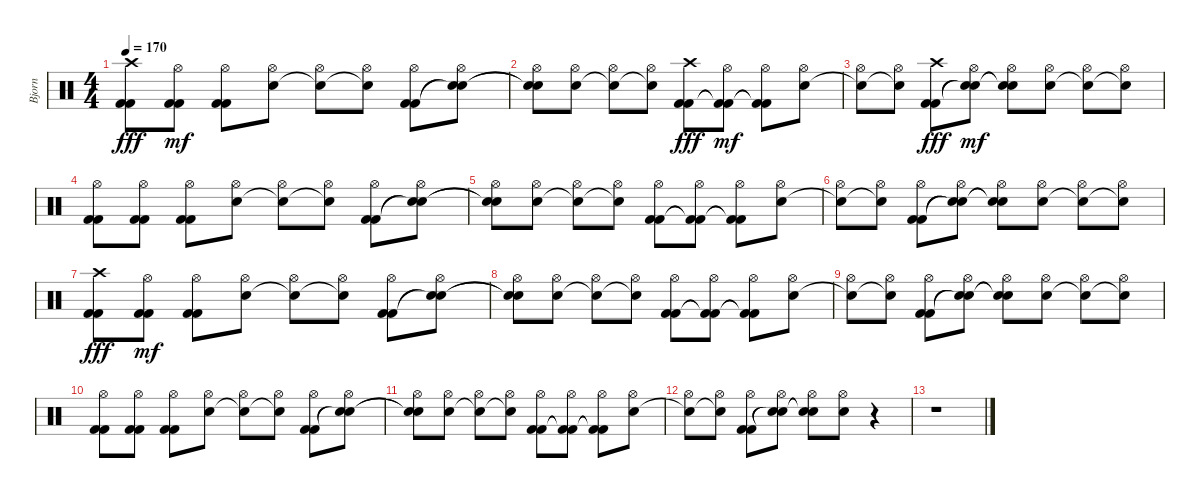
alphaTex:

\track ("Bjorn" "Bjorn") {instrument percussion}
\staff {score}
\articulation defaults
\ts (4 4)
\tempo 170
\clef neutral
\ks c
("Kick (hit) 2" "Kick (hit) 2" "Crash high (hit)").8{dy fff} ("Kick (hit) 2" "Kick (hit) 2" "Hi-Hat (open)").8{dy mf} ("Kick (hit) 2" "Kick (hit) 2" "Hi-Hat (open)").8 ("Snare (hit) 2" "Hi-Hat (open)").8 ("Snare (hit)"{t} "Hi-Hat (open)").8 ("Snare (hit)"{t} "Hi-Hat (open)").8 ("Kick (hit) 2" "Kick (hit) 2" "Hi-Hat (open)").8 ("Snare (hit)"{t} "Snare (hit)"{t} "Hi-Hat (open)").8 |
("Snare (hit)"{t} "Snare (hit)"{t} "Hi-Hat (open)").8 ("Snare (hit) 2" "Hi-Hat (open)").8 ("Snare (hit)"{t} "Hi-Hat (open)").8 ("Snare (hit)"{t} "Hi-Hat (open)").8 ("Kick (hit) 2" "Kick (hit) 2" "Crash high (hit)").8{dy fff} ("Kick (hit) 2"{t} "Kick (hit) 2"{t} "Hi-Hat (open)").8{dy mf} ("Kick (hit) 2"{t} "Kick (hit) 2"{t} "Hi-Hat (open)").8 ("Snare (hit) 2" "Hi-Hat (open)").8 |
("Snare (hit)"{t} "Hi-Hat (open)").8 ("Snare (hit)"{t} "Hi-Hat (open)").8 ("Kick (hit) 2" "Kick (hit) 2" "Crash high (hit)").8{dy fff} ("Snare (hit)"{t} "Snare (hit)"{t} "Hi-Hat (open)").8{dy mf} ("Snare (hit)"{t} "Snare (hit)"{t} "Hi-Hat (open)").8 ("Snare (hit) 2" "Hi-Hat (open)").8 ("Snare (hit)"{t} "Hi-Hat (open)").8 ("Snare (hit)"{t} "Hi-Hat (open)").8 |
("Kick (hit) 2" "Kick (hit) 2" "Hi-Hat (open)").8 ("Kick (hit) 2" "Kick (hit) 2" "Hi-Hat (open)").8 ("Kick (hit) 2" "Kick (hit) 2" "Hi-Hat (open)").8 ("Snare (hit) 2" "Hi-Hat (open)").8 ("Snare (hit)"{t} "Hi-Hat (open)").8 ("Snare (hit)"{t} "Hi-Hat (open)").8 ("Kick (hit) 2" "Kick (hit) 2" "Hi-Hat (open)").8 ("Snare (hit)"{t} "Snare (hit)"{t} "Hi-Hat (open)").8 |
("Snare (hit)"{t} "Snare (hit)"{t} "Hi-Hat (open)").8 ("Snare (hit) 2" "Hi-Hat (open)").8 ("Snare (hit)"{t} "Hi-Hat (open)").8 ("Snare (hit)"{t} "Hi-Hat (open)").8 ("Kick (hit) 2" "Kick (hit) 2" "Hi-Hat (open)").8 ("Kick (hit) 2"{t} "Kick (hit) 2"{t} "Hi-Hat (open)").8 ("Kick (hit) 2"{t} "Kick (hit) 2"{t} "Hi-Hat (open)").8 ("Snare (hit) 2" "Hi-Hat (open)").8 |
("Snare (hit)"{t} "Hi-Hat (open)").8 ("Snare (hit)"{t} "Hi-Hat (open)").8 ("Kick (hit) 2" "Kick (hit) 2" "Hi-Hat (open)").8 ("Snare (hit)"{t} "Snare (hit)"{t} "Hi-Hat (open)").8 ("Snare (hit)"{t} "Snare (hit)"{t} "Hi-Hat (open)").8 ("Snare (hit) 2" "Hi-Hat (open)").8 ("Snare (hit)"{t} "Hi-Hat (open)").8 ("Snare (hit)"{t} "Hi-Hat (open)").8 |
("Kick (hit) 2" "Kick (hit) 2" "Crash high (hit)").8{dy fff} ("Kick (hit) 2" "Kick (hit) 2" "Hi-Hat (open)").8{dy mf} ("Kick (hit) 2" "Kick (hit) 2" "Hi-Hat (open)").8 ("Snare (hit) 2" "Hi-Hat (open)").8 ("Snare (hit)"{t} "Hi-Hat (open)").8 ("Snare (hit)"{t} "Hi-Hat (open)").8 ("Kick (hit) 2" "Kick (hit) 2" "Hi-Hat (open)").8 ("Snare (hit)"{t} "Snare (hit)"{t} "Hi-Hat (open)").8 |
("Snare (hit)"{t} "Snare (hit)"{t} "Hi-Hat (open)").8 ("Snare (hit) 2" "Hi-Hat (open)").8 ("Snare (hit)"{t} "Hi-Hat (open)").8 ("Snare (hit)"{t} "Hi-Hat (open)").8 ("Kick (hit) 2" "Kick (hit) 2" "Hi-Hat (open)").8 ("Kick (hit) 2"{t} "Kick (hit) 2"{t} "Hi-Hat (open)").8 ("Kick (hit) 2"{t} "Kick (hit) 2"{t} "Hi-Hat (open)").8 ("Snare (hit) 2" "Hi-Hat (open)").8 |
("Snare (hit)"{t} "Hi-Hat (open)").8 ("Snare (hit)"{t} "Hi-Hat (open)").8 ("Kick (hit) 2" "Kick (hit) 2" "Hi-Hat (open)").8 ("Snare (hit)"{t} "Snare (hit)"{t} "Hi-Hat (open)").8 ("Snare (hit)"{t} "Snare (hit)"{t} "Hi-Hat (open)").8 ("Snare (hit) 2" "Hi-Hat (open)").8 ("Snare (hit)"{t} "Hi-Hat (open)").8 ("Snare (hit)"{t} "Hi-Hat (open)").8 |
("Kick (hit) 2" "Kick (hit) 2" "Hi-Hat (open)").8 ("Kick (hit) 2" "Kick (hit) 2" "Hi-Hat (open)").8 ("Kick (hit) 2" "Kick (hit) 2" "Hi-Hat (open)").8 ("Snare (hit) 2" "Hi-Hat (open)").8 ("Snare (hit)"{t} "Hi-Hat (open)").8 ("Snare (hit)"{t} "Hi-Hat (open)").8 ("Kick (hit) 2" "Kick (hit) 2" "Hi-Hat (open)").8 ("Snare (hit)"{t} "Snare (hit)"{t} "Hi-Hat (open)").8 |
("Snare (hit)"{t} "Snare (hit)"{t} "Hi-Hat (open)").8 ("Snare (hit) 2" "Hi-Hat (open)").8 ("Snare (hit)"{t} "Hi-Hat (open)").8 ("Snare (hit)"{t} "Hi-Hat (open)").8 ("Kick (hit) 2" "Kick (hit) 2" "Hi-Hat (open)").8 ("Kick (hit) 2"{t} "Kick (hit) 2"{t} "Hi-Hat (open)").8 ("Kick (hit) 2"{t} "Kick (hit) 2"{t} "Hi-Hat (open)").8 ("Snare (hit) 2" "Hi-Hat (open)").8 |
("Snare (hit)"{t} "Hi-Hat (open)").8 ("Snare (hit)"{t} "Hi-Hat (open)").8 ("Kick (hit) 2" "Kick (hit) 2" "Hi-Hat (open)").8 ("Snare (hit)"{t} "Snare (hit)"{t} "Hi-Hat (open)").8 ("Snare (hit)"{t} "Snare (hit)"{t} "Hi-Hat (open)").8 ("Snare (hit) 2" "Hi-Hat (open)").8 r.4 |
r.1
